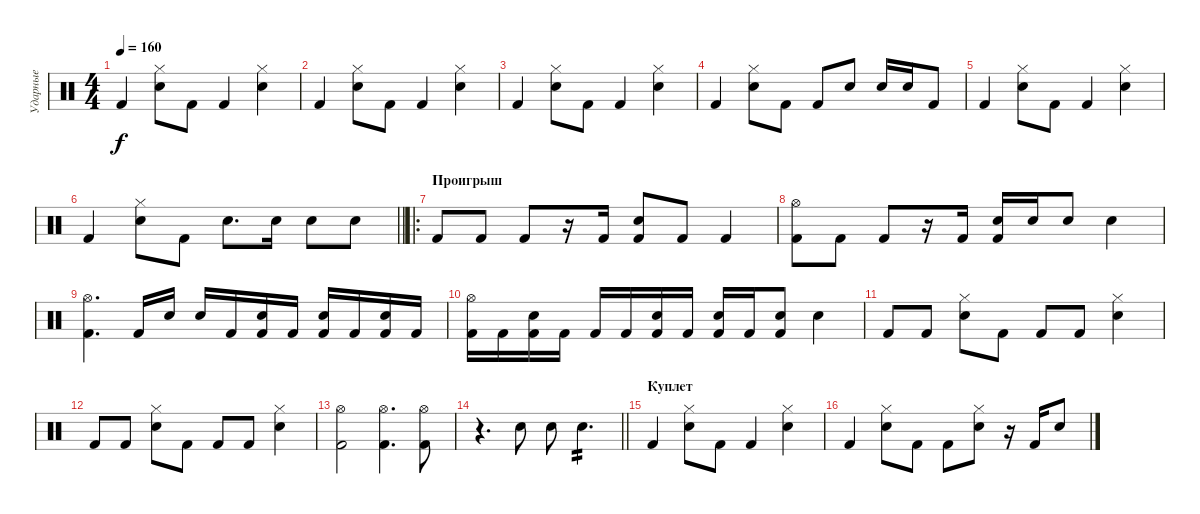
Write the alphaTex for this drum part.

\track ("Ударные" "Ударные") {instrument percussion}
\staff {score}
\articulation defaults
\ts (4 4)
\tempo 160
\clef neutral
\ks c "Kick (hit) 2".4{dy f}
("Hi-Hat (closed)" "Snare (hit) 2").8 "Kick (hit) 2".8 "Kick (hit) 2".4 ("Hi-Hat (closed)" "Snare (hit) 2").4 |
"Kick (hit) 2".4 ("Hi-Hat (closed)" "Snare (hit) 2").8 "Kick (hit) 2".8 "Kick (hit) 2".4 ("Hi-Hat (closed)" "Snare (hit) 2").4 |
"Kick (hit) 2".4 ("Hi-Hat (closed)" "Snare (hit) 2").8 "Kick (hit) 2".8 "Kick (hit) 2".4 ("Hi-Hat (closed)" "Snare (hit) 2").4 |
"Kick (hit) 2".4 ("Hi-Hat (closed)" "Snare (hit) 2").8 "Kick (hit) 2".8 "Kick (hit) 2".8 "Snare (hit) 2".8 "Snare (hit) 2".16 "Snare (hit) 2".16 "Kick (hit) 2".8 |
"Kick (hit) 2".4 ("Hi-Hat (closed)" "Snare (hit) 2").8 "Kick (hit) 2".8 "Kick (hit) 2".4 ("Hi-Hat (closed)" "Snare (hit) 2").4 |
\barLineRight lightlight "Kick (hit) 2".4
("Hi-Hat (closed)" "Snare (hit) 2").8 "Kick (hit) 2".8 "Snare (hit) 2".8{d} "Snare (hit) 2".16 "Snare (hit) 2".8 "Snare (hit) 2".8 |
\ro
\section ("" "Проигрыш")
"Kick (hit) 2".8 "Kick (hit) 2".8 "Kick (hit) 2".8 r.16 "Kick (hit) 2".16 ("Snare (hit) 2" "Kick (hit) 2").8 "Kick (hit) 2".8 "Kick (hit) 2".4 |
("Hi-Hat (open)" "Kick (hit) 2").8 "Kick (hit) 2".8 "Kick (hit) 2".8 r.16 "Kick (hit) 2".16 ("Snare (hit) 2" "Kick (hit) 2").16 "Snare (hit) 2".16 "Snare (hit) 2".8 "Snare (hit) 2".4 |
("Hi-Hat (open)" "Kick (hit) 2").4{d} "Kick (hit) 2".16 "Snare (hit) 2".16 "Snare (hit) 2".16 "Kick (hit) 2".16 ("Snare (hit) 2" "Kick (hit) 2").16 "Kick (hit) 2".16 ("Snare (hit) 2" "Kick (hit) 2").16 "Kick (hit) 2".16 ("Snare (hit) 2" "Kick (hit) 2").16 "Kick (hit) 2".16 |
("Hi-Hat (open)" "Kick (hit) 2").16 "Kick (hit) 2".16 ("Snare (hit) 2" "Kick (hit) 2").16 "Kick (hit) 2".16 "Kick (hit) 2".16 "Kick (hit) 2".16 ("Snare (hit) 2" "Kick (hit) 2").16 "Kick (hit) 2".16 ("Snare (hit) 2" "Kick (hit) 2").16 "Kick (hit) 2".16 ("Snare (hit) 2" "Kick (hit) 2").8 "Snare (hit) 2".4 |
"Kick (hit) 2".8 "Kick (hit) 2".8 ("Hi-Hat (closed)" "Snare (hit) 2").8 "Kick (hit) 2".8 "Kick (hit) 2".8 "Kick (hit) 2".8 ("Hi-Hat (closed)" "Snare (hit) 2").4 |
"Kick (hit) 2".8 "Kick (hit) 2".8 ("Hi-Hat (closed)" "Snare (hit) 2").8 "Kick (hit) 2".8 "Kick (hit) 2".8 "Kick (hit) 2".8 ("Hi-Hat (closed)" "Snare (hit) 2").4 |
("Hi-Hat (open)" "Kick (hit) 2").2 ("Hi-Hat (open)" "Kick (hit) 2").4{d} ("Hi-Hat (open)" "Kick (hit) 2").8 |
\barLineRight lightlight
r.4{d} "Snare (hit) 2".8 "Snare (hit) 2".8 "Snare (hit) 2".4{d tp 2} |
\section ("" "Куплет")
"Kick (hit) 2".4 ("Hi-Hat (closed)" "Snare (hit) 2").8 "Kick (hit) 2".8 "Kick (hit) 2".4 ("Hi-Hat (closed)" "Snare (hit) 2").4 |
"Kick (hit) 2".4 ("Hi-Hat (closed)" "Snare (hit) 2").8 "Kick (hit) 2".8 "Kick (hit) 2".8 ("Hi-Hat (closed)" "Snare (hit) 2").8 r.16 "Kick (hit) 2".16 "Snare (hit) 2".8
